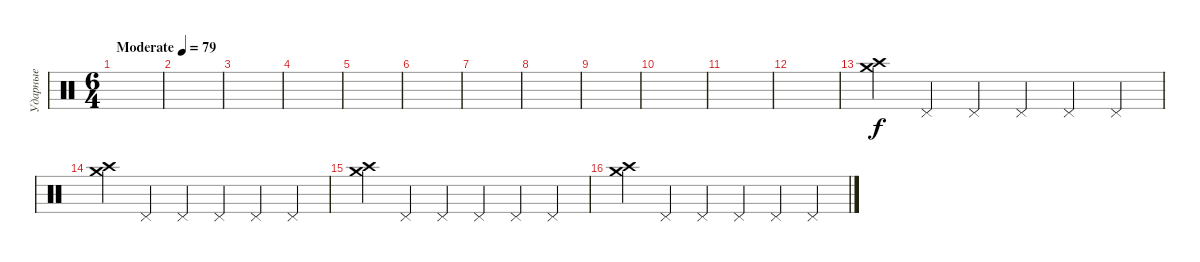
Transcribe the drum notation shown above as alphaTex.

\track ("Ударные" "Ударные") {instrument percussion}
\staff {score}
\articulation defaults
\ts (6 4)
\tempo (79 "Moderate")
\clef neutral
\ks c
|
|
|
|
|
|
|
|
|
|
|
|
("Crash high (hit)" "Crash medium (hit)").4 "Pedal Hi-Hat (hit)".4 "Pedal Hi-Hat (hit)".4 "Pedal Hi-Hat (hit)".4 "Pedal Hi-Hat (hit)".4 "Pedal Hi-Hat (hit)".4 |
("Crash high (hit)" "Crash medium (hit)").4 "Pedal Hi-Hat (hit)".4 "Pedal Hi-Hat (hit)".4 "Pedal Hi-Hat (hit)".4 "Pedal Hi-Hat (hit)".4 "Pedal Hi-Hat (hit)".4 |
("Crash high (hit)" "Crash medium (hit)").4 "Pedal Hi-Hat (hit)".4 "Pedal Hi-Hat (hit)".4 "Pedal Hi-Hat (hit)".4 "Pedal Hi-Hat (hit)".4 "Pedal Hi-Hat (hit)".4 |
("Crash high (hit)" "Crash medium (hit)").4 "Pedal Hi-Hat (hit)".4 "Pedal Hi-Hat (hit)".4 "Pedal Hi-Hat (hit)".4 "Pedal Hi-Hat (hit)".4 "Pedal Hi-Hat (hit)".4
